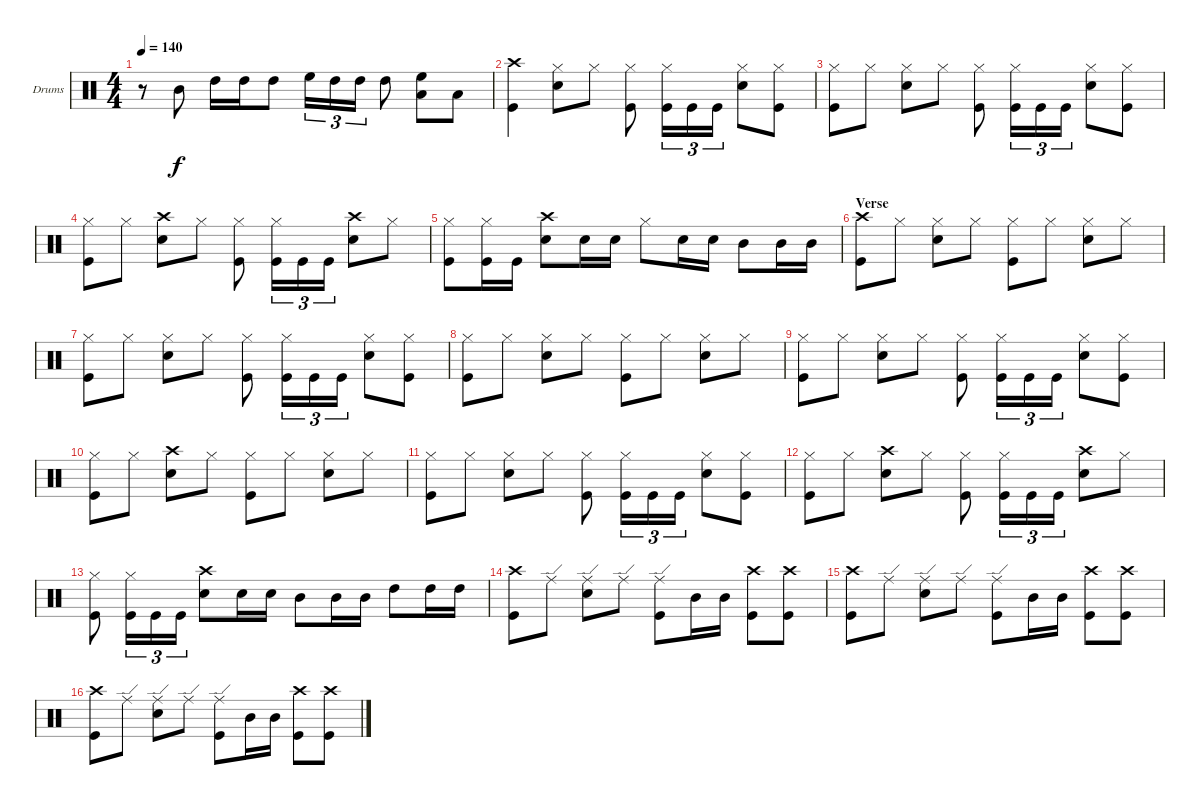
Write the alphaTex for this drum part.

\defaultSystemsLayout 4
\bracketExtendMode groupsimilarinstruments
\firstSystemTrackNameOrientation horizontal
\otherSystemsTrackNameOrientation horizontal
\track ("Drums" "Drums") {instrument percussion}
\staff {score}
\articulation defaults
\ts (4 4)
\tempo 140
\clef neutral
\ks c
r.8{dy f} "Mid Tom (hit)".8 "High Tom (hit)".16 "High Tom (hit)".16 "High Tom (hit)".8 "High Floor Tom (hit)".16{tu (3 2)} "High Tom (hit)".16{tu (3 2)} "High Tom (hit)".16{tu (3 2)} "High Tom (hit)".8 ("Low Tom (hit)" "High Floor Tom (hit)").8 "Low Tom (hit)".8 |
("Crash high (hit)" "Kick (hit)").4 ("Snare (hit) 2" "Hi-Hat (closed)").8 "Hi-Hat (closed)".8 ("Kick (hit)" "Hi-Hat (closed)").8 ("Kick (hit)" "Hi-Hat (closed)").16{tu (3 2)} "Kick (hit)".16{tu (3 2)} "Kick (hit)".16{tu (3 2)} ("Snare (hit) 2" "Hi-Hat (closed)").8 ("Hi-Hat (closed)" "Kick (hit)").8 |
("Kick (hit)" "Hi-Hat (closed)").8 "Hi-Hat (closed)".8 ("Snare (hit) 2" "Hi-Hat (closed)").8 "Hi-Hat (closed)".8 ("Kick (hit)" "Hi-Hat (closed)").8 ("Kick (hit)" "Hi-Hat (closed)").16{tu (3 2)} "Kick (hit)".16{tu (3 2)} "Kick (hit)".16{tu (3 2)} ("Snare (hit) 2" "Hi-Hat (closed)").8 ("Hi-Hat (closed)" "Kick (hit)").8 |
("Kick (hit)" "Hi-Hat (closed)").8 "Hi-Hat (closed)".8 ("Crash high (hit)" "Snare (hit) 2").8 "Hi-Hat (closed)".8 ("Kick (hit)" "Hi-Hat (closed)").8 ("Kick (hit)" "Hi-Hat (closed)").16{tu (3 2)} "Kick (hit)".16{tu (3 2)} "Kick (hit)".16{tu (3 2)} ("Crash high (hit)" "Snare (hit) 2").8 "Hi-Hat (closed)".8 |
("Kick (hit)" "Hi-Hat (closed)").8 ("Kick (hit)" "Hi-Hat (closed)").16 "Kick (hit)".16 ("Snare (hit) 2" "Crash high (hit)").8 "Snare (hit) 2".16 "Snare (hit) 2".16 "Hi-Hat (closed)".8 "Snare (hit) 2".16 "Snare (hit) 2".16 "Mid Tom (hit)".8 "Mid Tom (hit)".16 "Mid Tom (hit)".16 |
\section ("" "Verse")
("Kick (hit)" "Crash high (hit)").8 "Hi-Hat (closed)".8 ("Snare (hit) 2" "Hi-Hat (closed)").8 "Hi-Hat (closed)".8 ("Kick (hit)" "Hi-Hat (closed)").8 "Hi-Hat (closed)".8 ("Snare (hit) 2" "Hi-Hat (closed)").8 "Hi-Hat (closed)".8 |
("Kick (hit)" "Hi-Hat (closed)").8 "Hi-Hat (closed)".8 ("Hi-Hat (closed)" "Snare (hit) 2").8 "Hi-Hat (closed)".8 ("Kick (hit)" "Hi-Hat (closed)").8 ("Kick (hit)" "Hi-Hat (closed)").16{tu (3 2)} "Kick (hit)".16{tu (3 2)} "Kick (hit)".16{tu (3 2)} ("Snare (hit) 2" "Hi-Hat (closed)").8 ("Kick (hit)" "Hi-Hat (closed)").8 |
("Hi-Hat (closed)" "Kick (hit)").8 "Hi-Hat (closed)".8 ("Hi-Hat (closed)" "Snare (hit) 2").8 "Hi-Hat (closed)".8 ("Hi-Hat (closed)" "Kick (hit)").8 "Hi-Hat (closed)".8 ("Snare (hit) 2" "Hi-Hat (closed)").8 "Hi-Hat (closed)".8 |
("Kick (hit)" "Hi-Hat (closed)").8 "Hi-Hat (closed)".8 ("Hi-Hat (closed)" "Snare (hit) 2").8 "Hi-Hat (closed)".8 ("Kick (hit)" "Hi-Hat (closed)").8 ("Kick (hit)" "Hi-Hat (closed)").16{tu (3 2)} "Kick (hit)".16{tu (3 2)} "Kick (hit)".16{tu (3 2)} ("Snare (hit) 2" "Hi-Hat (closed)").8 ("Kick (hit)" "Hi-Hat (closed)").8 |
("Hi-Hat (closed)" "Kick (hit)").8 "Hi-Hat (closed)".8 ("Crash high (hit)" "Snare (hit) 2").8 "Hi-Hat (closed)".8 ("Hi-Hat (closed)" "Kick (hit)").8 "Hi-Hat (closed)".8 ("Snare (hit) 2" "Hi-Hat (closed)").8 "Hi-Hat (closed)".8 |
("Kick (hit)" "Hi-Hat (closed)").8 "Hi-Hat (closed)".8 ("Hi-Hat (closed)" "Snare (hit) 2").8 "Hi-Hat (closed)".8 ("Kick (hit)" "Hi-Hat (closed)").8 ("Kick (hit)" "Hi-Hat (closed)").16{tu (3 2)} "Kick (hit)".16{tu (3 2)} "Kick (hit)".16{tu (3 2)} ("Snare (hit) 2" "Hi-Hat (closed)").8 ("Kick (hit)" "Hi-Hat (closed)").8 |
("Kick (hit)" "Hi-Hat (closed)").8 "Hi-Hat (closed)".8 ("Snare (hit) 2" "Crash high (hit)").8 "Hi-Hat (closed)".8 ("Kick (hit)" "Hi-Hat (closed)").8 ("Kick (hit)" "Hi-Hat (closed)").16{tu (3 2)} "Kick (hit)".16{tu (3 2)} "Kick (hit)".16{tu (3 2)} ("Crash high (hit)" "Snare (hit) 2").8 "Hi-Hat (closed)".8 |
("Hi-Hat (closed)" "Kick (hit)").8 ("Hi-Hat (closed)" "Kick (hit)").16{tu (3 2)} "Kick (hit)".16{tu (3 2)} "Kick (hit)".16{tu (3 2)} ("Snare (hit) 2" "Crash high (hit)").8 "Snare (hit) 2".16 "Snare (hit) 2".16 "Mid Tom (hit)".8 "Mid Tom (hit)".16 "Mid Tom (hit)".16 "High Tom (hit)".8 "High Tom (hit)".16 "High Tom (hit)".16 |
("Crash high (hit)" "Kick (hit)").8 "Ride (edge)".8 ("Snare (hit) 2" "Ride (edge)").8 "Ride (edge)".8 ("Ride (edge)" "Kick (hit)").8 "Mid Tom (hit)".16 "Mid Tom (hit)".16 ("Crash high (hit)" "Kick (hit)").8 ("Crash high (hit)" "Kick (hit)").8 |
("Crash high (hit)" "Kick (hit)").8 "Ride (edge)".8 ("Snare (hit) 2" "Ride (edge)").8 "Ride (edge)".8 ("Ride (edge)" "Kick (hit)").8 "Mid Tom (hit)".16 "Mid Tom (hit)".16 ("Crash high (hit)" "Kick (hit)").8 ("Crash high (hit)" "Kick (hit)").8 |
("Crash high (hit)" "Kick (hit)").8 "Ride (edge)".8 ("Snare (hit) 2" "Ride (edge)").8 "Ride (edge)".8 ("Ride (edge)" "Kick (hit)").8 "Mid Tom (hit)".16 "Mid Tom (hit)".16 ("Crash high (hit)" "Kick (hit)").8 ("Crash high (hit)" "Kick (hit)").8
